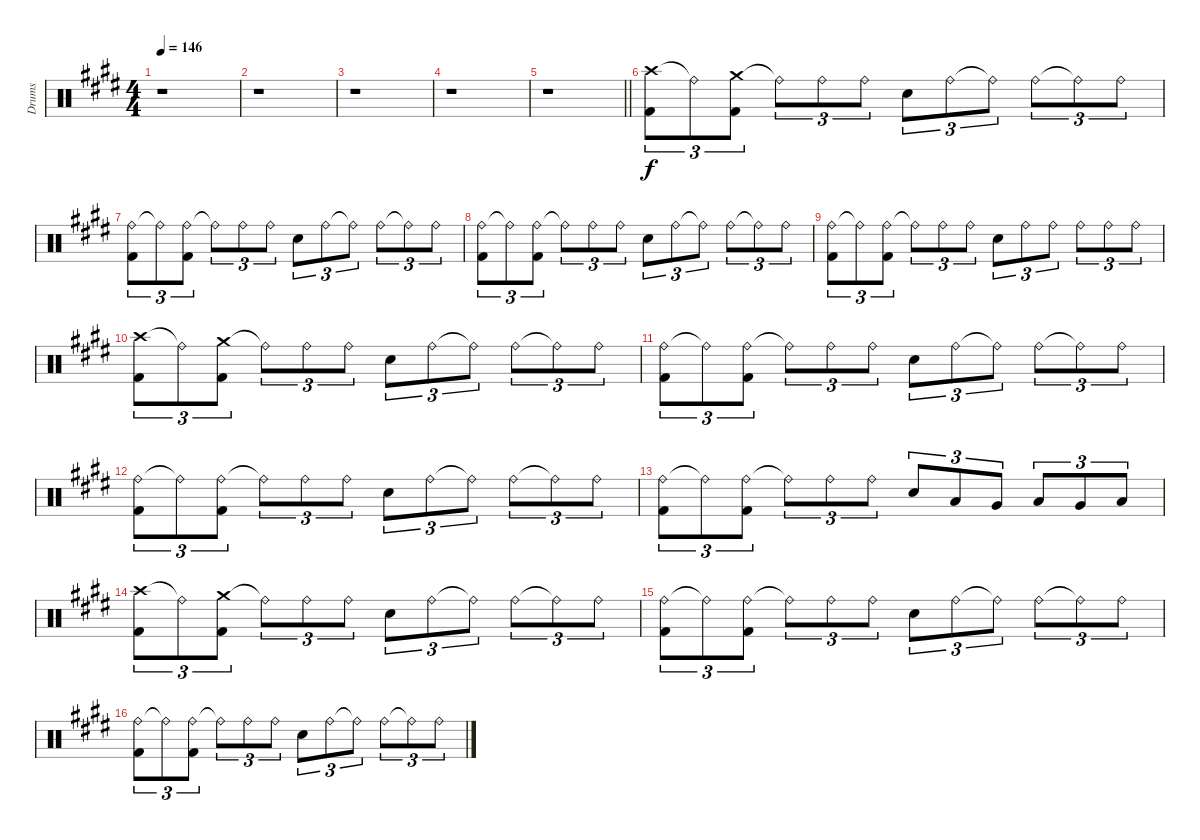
\track ("Drums" "Drums") {instrument percussion}
\staff {score}
\articulation defaults
\ts (4 4)
\tempo 146
\clef neutral
\ks c#minor
r.1{dy f} |
r.1 |
r.1 |
r.1 |
\barLineRight lightlight
r.1 |
("Crash high (hit)" "Kick (hit) 2").8{tu (3 2)} "Ride (bell)"{t}.8{tu (3 2)} ("Crash medium (hit)" "Kick (hit) 2").8{tu (3 2)} "Ride (bell)"{t}.8{tu (3 2)} "Ride (bell)".8{tu (3 2)} "Ride (bell)".8{tu (3 2)} "Snare (hit) 2".8{tu (3 2)} "Ride (bell)".8{tu (3 2)} "Ride (bell)"{t}.8{tu (3 2)} "Ride (bell)".8{tu (3 2)} "Ride (bell)"{t}.8{tu (3 2)} "Ride (bell)".8{tu (3 2)} |
("Ride (bell)" "Kick (hit) 2").8{tu (3 2)} "Ride (bell)"{t}.8{tu (3 2)} ("Ride (bell)" "Kick (hit) 2").8{tu (3 2)} "Ride (bell)"{t}.8{tu (3 2)} "Ride (bell)".8{tu (3 2)} "Ride (bell)".8{tu (3 2)} "Snare (hit) 2".8{tu (3 2)} "Ride (bell)".8{tu (3 2)} "Ride (bell)"{t}.8{tu (3 2)} "Ride (bell)".8{tu (3 2)} "Ride (bell)"{t}.8{tu (3 2)} "Ride (bell)".8{tu (3 2)} |
("Ride (bell)" "Kick (hit) 2").8{tu (3 2)} "Ride (bell)"{t}.8{tu (3 2)} ("Ride (bell)" "Kick (hit) 2").8{tu (3 2)} "Ride (bell)"{t}.8{tu (3 2)} "Ride (bell)".8{tu (3 2)} "Ride (bell)".8{tu (3 2)} "Snare (hit) 2".8{tu (3 2)} "Ride (bell)".8{tu (3 2)} "Ride (bell)"{t}.8{tu (3 2)} "Ride (bell)".8{tu (3 2)} "Ride (bell)"{t}.8{tu (3 2)} "Ride (bell)".8{tu (3 2)} |
("Ride (bell)" "Kick (hit) 2").8{tu (3 2)} "Ride (bell)"{t}.8{tu (3 2)} ("Ride (bell)" "Kick (hit) 2").8{tu (3 2)} "Ride (bell)"{t}.8{tu (3 2)} "Ride (bell)".8{tu (3 2)} "Ride (bell)".8{tu (3 2)} "Snare (hit) 2".8{tu (3 2)} "Ride (bell)".8{tu (3 2)} "Ride (bell)".8{tu (3 2)} "Ride (bell)".8{tu (3 2)} "Ride (bell)".8{tu (3 2)} "Ride (bell)".8{tu (3 2)} |
("Crash high (hit)" "Kick (hit) 2").8{tu (3 2)} "Ride (bell)"{t}.8{tu (3 2)} ("Crash medium (hit)" "Kick (hit) 2").8{tu (3 2)} "Ride (bell)"{t}.8{tu (3 2)} "Ride (bell)".8{tu (3 2)} "Ride (bell)".8{tu (3 2)} "Snare (hit) 2".8{tu (3 2)} "Ride (bell)".8{tu (3 2)} "Ride (bell)"{t}.8{tu (3 2)} "Ride (bell)".8{tu (3 2)} "Ride (bell)"{t}.8{tu (3 2)} "Ride (bell)".8{tu (3 2)} |
("Ride (bell)" "Kick (hit) 2").8{tu (3 2)} "Ride (bell)"{t}.8{tu (3 2)} ("Ride (bell)" "Kick (hit) 2").8{tu (3 2)} "Ride (bell)"{t}.8{tu (3 2)} "Ride (bell)".8{tu (3 2)} "Ride (bell)".8{tu (3 2)} "Snare (hit) 2".8{tu (3 2)} "Ride (bell)".8{tu (3 2)} "Ride (bell)"{t}.8{tu (3 2)} "Ride (bell)".8{tu (3 2)} "Ride (bell)"{t}.8{tu (3 2)} "Ride (bell)".8{tu (3 2)} |
("Ride (bell)" "Kick (hit) 2").8{tu (3 2)} "Ride (bell)"{t}.8{tu (3 2)} ("Ride (bell)" "Kick (hit) 2").8{tu (3 2)} "Ride (bell)"{t}.8{tu (3 2)} "Ride (bell)".8{tu (3 2)} "Ride (bell)".8{tu (3 2)} "Snare (hit) 2".8{tu (3 2)} "Ride (bell)".8{tu (3 2)} "Ride (bell)"{t}.8{tu (3 2)} "Ride (bell)".8{tu (3 2)} "Ride (bell)"{t}.8{tu (3 2)} "Ride (bell)".8{tu (3 2)} |
("Ride (bell)" "Kick (hit) 2").8{tu (3 2)} "Ride (bell)"{t}.8{tu (3 2)} ("Ride (bell)" "Kick (hit) 2").8{tu (3 2)} "Ride (bell)"{t}.8{tu (3 2)} "Ride (bell)".8{tu (3 2)} "Ride (bell)".8{tu (3 2)} "Snare (hit) 2".8{tu (3 2)} "Low Tom (hit)".8{tu (3 2)} "Very Low Tom (hit)".8{tu (3 2)} "Low Floor Tom (hit)".8{tu (3 2)} "Very Low Tom (hit)".8{tu (3 2)} "Low Floor Tom (hit)".8{tu (3 2)} |
("Crash high (hit)" "Kick (hit) 2").8{tu (3 2)} "Ride (bell)"{t}.8{tu (3 2)} ("Crash medium (hit)" "Kick (hit) 2").8{tu (3 2)} "Ride (bell)"{t}.8{tu (3 2)} "Ride (bell)".8{tu (3 2)} "Ride (bell)".8{tu (3 2)} "Snare (hit) 2".8{tu (3 2)} "Ride (bell)".8{tu (3 2)} "Ride (bell)"{t}.8{tu (3 2)} "Ride (bell)".8{tu (3 2)} "Ride (bell)"{t}.8{tu (3 2)} "Ride (bell)".8{tu (3 2)} |
("Ride (bell)" "Kick (hit) 2").8{tu (3 2)} "Ride (bell)"{t}.8{tu (3 2)} ("Ride (bell)" "Kick (hit) 2").8{tu (3 2)} "Ride (bell)"{t}.8{tu (3 2)} "Ride (bell)".8{tu (3 2)} "Ride (bell)".8{tu (3 2)} "Snare (hit) 2".8{tu (3 2)} "Ride (bell)".8{tu (3 2)} "Ride (bell)"{t}.8{tu (3 2)} "Ride (bell)".8{tu (3 2)} "Ride (bell)"{t}.8{tu (3 2)} "Ride (bell)".8{tu (3 2)} |
("Ride (bell)" "Kick (hit) 2").8{tu (3 2)} "Ride (bell)"{t}.8{tu (3 2)} ("Ride (bell)" "Kick (hit) 2").8{tu (3 2)} "Ride (bell)"{t}.8{tu (3 2)} "Ride (bell)".8{tu (3 2)} "Ride (bell)".8{tu (3 2)} "Snare (hit) 2".8{tu (3 2)} "Ride (bell)".8{tu (3 2)} "Ride (bell)"{t}.8{tu (3 2)} "Ride (bell)".8{tu (3 2)} "Ride (bell)"{t}.8{tu (3 2)} "Ride (bell)".8{tu (3 2)}
